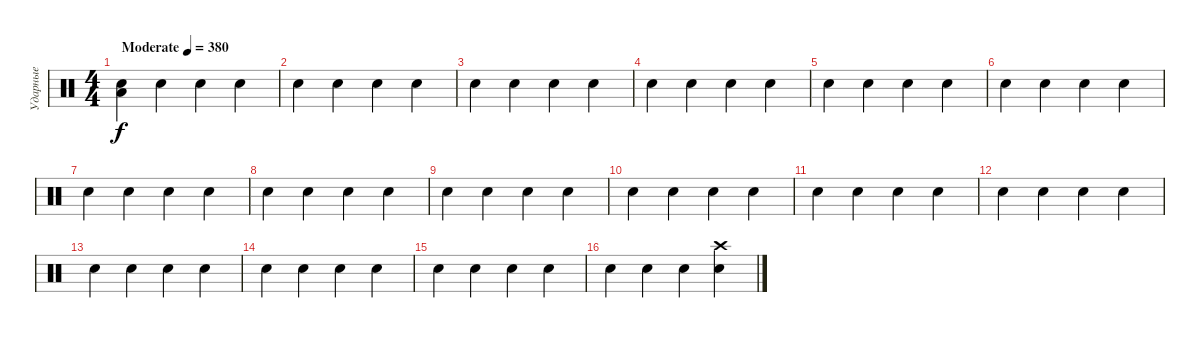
\track ("Ударные" "Ударные") {instrument percussion}
\staff {score}
\articulation defaults
\ts (4 4)
\tempo (380 "Moderate")
\clef neutral
\ks c
("Electric Snare (hit)" "Low Tom (hit)").4{dy f} "Electric Snare (hit)".4 "Electric Snare (hit)".4 "Electric Snare (hit)".4 |
"Electric Snare (hit)".4 "Electric Snare (hit)".4 "Electric Snare (hit)".4 "Electric Snare (hit)".4 |
"Electric Snare (hit)".4 "Electric Snare (hit)".4 "Electric Snare (hit)".4 "Electric Snare (hit)".4 |
"Electric Snare (hit)".4 "Electric Snare (hit)".4 "Electric Snare (hit)".4 "Electric Snare (hit)".4 |
"Electric Snare (hit)".4 "Electric Snare (hit)".4 "Electric Snare (hit)".4 "Electric Snare (hit)".4 |
"Electric Snare (hit)".4 "Electric Snare (hit)".4 "Electric Snare (hit)".4 "Electric Snare (hit)".4 |
"Electric Snare (hit)".4 "Electric Snare (hit)".4 "Electric Snare (hit)".4 "Electric Snare (hit)".4 |
"Electric Snare (hit)".4 "Electric Snare (hit)".4 "Electric Snare (hit)".4 "Electric Snare (hit)".4 |
"Electric Snare (hit)".4 "Electric Snare (hit)".4 "Electric Snare (hit)".4 "Electric Snare (hit)".4 |
"Electric Snare (hit)".4 "Electric Snare (hit)".4 "Electric Snare (hit)".4 "Electric Snare (hit)".4 |
"Electric Snare (hit)".4 "Electric Snare (hit)".4 "Electric Snare (hit)".4 "Electric Snare (hit)".4 |
"Electric Snare (hit)".4 "Electric Snare (hit)".4 "Electric Snare (hit)".4 "Electric Snare (hit)".4 |
"Electric Snare (hit)".4 "Electric Snare (hit)".4 "Electric Snare (hit)".4 "Electric Snare (hit)".4 |
"Electric Snare (hit)".4 "Electric Snare (hit)".4 "Electric Snare (hit)".4 "Electric Snare (hit)".4 |
"Electric Snare (hit)".4 "Electric Snare (hit)".4 "Electric Snare (hit)".4 "Electric Snare (hit)".4 |
"Electric Snare (hit)".4 "Electric Snare (hit)".4 "Electric Snare (hit)".4 ("Electric Snare (hit)" "Crash high (hit)").4
